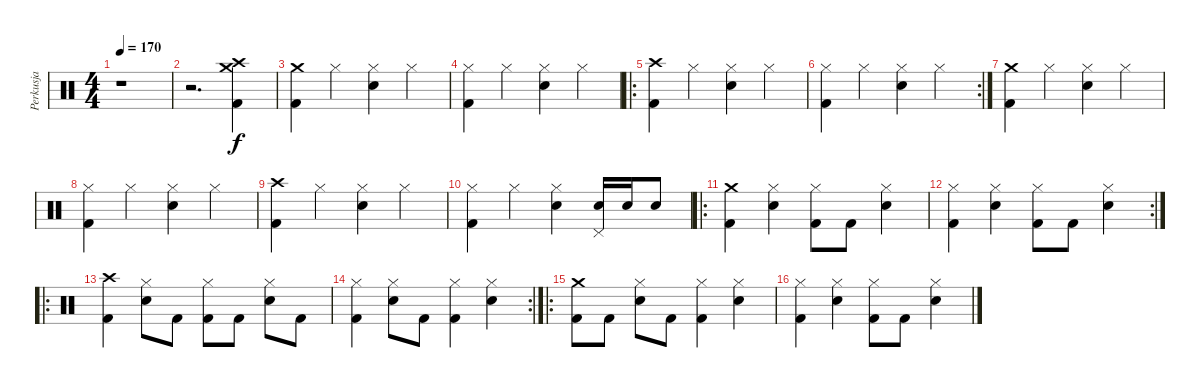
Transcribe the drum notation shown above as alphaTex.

\track ("Perkusja" "Perkusja") {instrument percussion}
\staff {score}
\articulation defaults
\ts (4 4)
\tempo 170
\clef neutral
\ks c
r.1{dy f} |
r.2{d} ("Crash high (hit)" "Crash medium (hit)" "Kick (hit) 2").4 |
("Crash medium (hit)" "Kick (hit) 2").4 "Hi-Hat (closed)".4 ("Hi-Hat (closed)" "Snare (hit) 2").4 "Hi-Hat (closed)".4 |
("Hi-Hat (closed)" "Kick (hit) 2").4 "Hi-Hat (closed)".4 ("Hi-Hat (closed)" "Snare (hit) 2").4 "Hi-Hat (closed)".4 |
\ro
("Crash high (hit)" "Kick (hit) 2").4 "Hi-Hat (closed)".4 ("Hi-Hat (closed)" "Snare (hit) 2").4 "Hi-Hat (closed)".4 |
\rc 2
("Hi-Hat (closed)" "Kick (hit) 2").4 "Hi-Hat (closed)".4 ("Hi-Hat (closed)" "Snare (hit) 2").4 "Hi-Hat (closed)".4 |
("Crash medium (hit)" "Kick (hit) 2").4 "Hi-Hat (closed)".4 ("Hi-Hat (closed)" "Snare (hit) 2").4 "Hi-Hat (closed)".4 |
("Hi-Hat (closed)" "Kick (hit) 2").4 "Hi-Hat (closed)".4 ("Hi-Hat (closed)" "Snare (hit) 2").4 "Hi-Hat (closed)".4 |
("Crash high (hit)" "Kick (hit) 2").4 "Hi-Hat (closed)".4 ("Hi-Hat (closed)" "Snare (hit) 2").4 "Hi-Hat (closed)".4 |
("Hi-Hat (closed)" "Kick (hit) 2").4 "Hi-Hat (closed)".4 ("Hi-Hat (closed)" "Snare (hit) 2").4 ("Pedal Hi-Hat (hit)" "Snare (hit) 2").16 "Snare (hit) 2".16 "Snare (hit) 2".8 |
\ro
("Crash medium (hit)" "Kick (hit) 2").4 ("Hi-Hat (closed)" "Snare (hit) 2").4 ("Hi-Hat (closed)" "Kick (hit) 2").8 "Kick (hit) 2".8 ("Hi-Hat (closed)" "Snare (hit) 2").4 |
\rc 2
("Hi-Hat (closed)" "Kick (hit) 2").4 ("Hi-Hat (closed)" "Snare (hit) 2").4 ("Hi-Hat (closed)" "Kick (hit) 2").8 "Kick (hit) 2".8 ("Hi-Hat (closed)" "Snare (hit) 2").4 |
\ro
("Crash high (hit)" "Kick (hit) 2").4 ("Hi-Hat (closed)" "Snare (hit) 2").8 "Kick (hit) 2".8 ("Hi-Hat (closed)" "Kick (hit) 2").8 "Kick (hit) 2".8 ("Hi-Hat (closed)" "Snare (hit) 2").8 "Kick (hit) 2".8 |
\rc 2
("Hi-Hat (closed)" "Kick (hit) 2").4 ("Hi-Hat (closed)" "Snare (hit) 2").8 "Kick (hit) 2".8 ("Hi-Hat (closed)" "Kick (hit) 2").4 ("Hi-Hat (closed)" "Snare (hit) 2").4 |
\ro
("Crash medium (hit)" "Kick (hit) 2").8 "Kick (hit) 2".8 ("Hi-Hat (closed)" "Snare (hit) 2").8 "Kick (hit) 2".8 ("Hi-Hat (closed)" "Kick (hit) 2").4 ("Hi-Hat (closed)" "Snare (hit) 2").4 |
("Hi-Hat (closed)" "Kick (hit) 2").4 ("Hi-Hat (closed)" "Snare (hit) 2").4 ("Hi-Hat (closed)" "Kick (hit) 2").8 "Kick (hit) 2".8 ("Hi-Hat (closed)" "Snare (hit) 2").4
